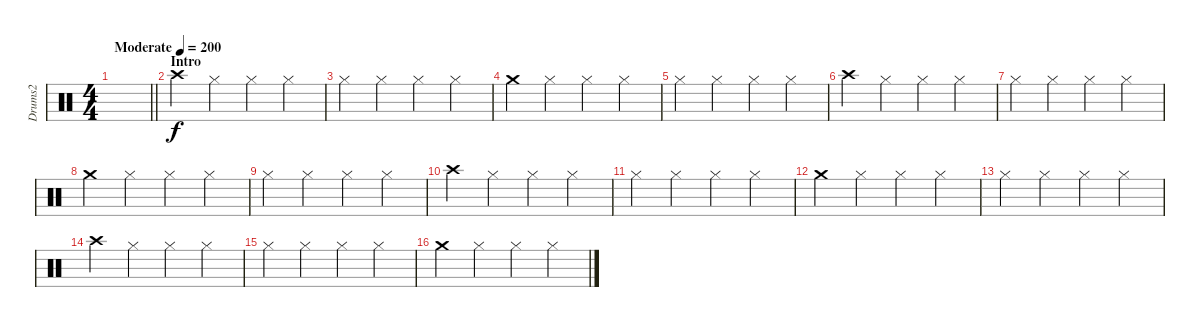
\track ("Drums2" "Drums2") {instrument percussion}
\staff {score}
\articulation defaults
\ts (4 4)
\tempo (200 "Moderate")
\clef neutral
\barLineRight lightlight
\ks c
|
\section ("" "Intro")
"Crash high (hit)".4 "Hi-Hat (closed)".4 "Hi-Hat (closed)".4 "Hi-Hat (closed)".4 |
"Hi-Hat (closed)".4 "Hi-Hat (closed)".4 "Hi-Hat (closed)".4 "Hi-Hat (closed)".4 |
"Crash medium (hit)".4 "Hi-Hat (closed)".4 "Hi-Hat (closed)".4 "Hi-Hat (closed)".4 |
"Hi-Hat (closed)".4 "Hi-Hat (closed)".4 "Hi-Hat (closed)".4 "Hi-Hat (closed)".4 |
"Crash high (hit)".4 "Hi-Hat (closed)".4 "Hi-Hat (closed)".4 "Hi-Hat (closed)".4 |
"Hi-Hat (closed)".4 "Hi-Hat (closed)".4 "Hi-Hat (closed)".4 "Hi-Hat (closed)".4 |
"Crash medium (hit)".4 "Hi-Hat (closed)".4 "Hi-Hat (closed)".4 "Hi-Hat (closed)".4 |
"Hi-Hat (closed)".4 "Hi-Hat (closed)".4 "Hi-Hat (closed)".4 "Hi-Hat (closed)".4 |
"Crash high (hit)".4 "Hi-Hat (closed)".4 "Hi-Hat (closed)".4 "Hi-Hat (closed)".4 |
"Hi-Hat (closed)".4 "Hi-Hat (closed)".4 "Hi-Hat (closed)".4 "Hi-Hat (closed)".4 |
"Crash medium (hit)".4 "Hi-Hat (closed)".4 "Hi-Hat (closed)".4 "Hi-Hat (closed)".4 |
"Hi-Hat (closed)".4 "Hi-Hat (closed)".4 "Hi-Hat (closed)".4 "Hi-Hat (closed)".4 |
"Crash high (hit)".4 "Hi-Hat (closed)".4 "Hi-Hat (closed)".4 "Hi-Hat (closed)".4 |
"Hi-Hat (closed)".4 "Hi-Hat (closed)".4 "Hi-Hat (closed)".4 "Hi-Hat (closed)".4 |
"Crash medium (hit)".4 "Hi-Hat (closed)".4 "Hi-Hat (closed)".4 "Hi-Hat (closed)".4
